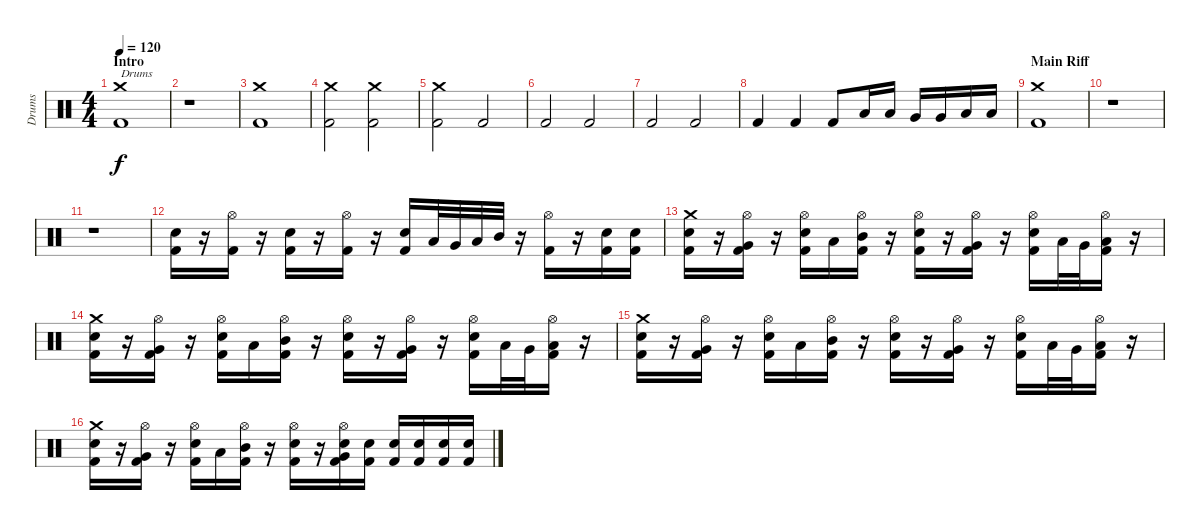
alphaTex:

\track ("Drums" "Drums") {instrument percussion}
\staff {score}
\articulation defaults
\ts (4 4)
\section ("" "Intro")
\tempo 120
\clef neutral
\ks c
("Crash medium (hit)" "Kick (hit) 2").1{txt "Drums" dy f} |
r.1 |
("Crash medium (hit)" "Kick (hit) 2").1 |
("Crash medium (hit)" "Kick (hit) 2").2 ("Crash medium (hit)" "Kick (hit) 2").2 |
("Crash medium (hit)" "Kick (hit) 2").2 "Kick (hit) 2".2 |
"Kick (hit) 2".2 "Kick (hit) 2".2 |
"Kick (hit) 2".2 "Kick (hit) 2".2 |
"Kick (hit) 2".4 "Kick (hit) 2".4 "Kick (hit) 2".8 "Low Tom (hit)".16 "Low Tom (hit)".16 "Very Low Tom (hit)".16 "Very Low Tom (hit)".16 "Low Floor Tom (hit)".16 "Low Floor Tom (hit)".16 |
\section ("" "Main Riff")
("Crash medium (hit)" "Kick (hit) 2").1 |
r.1 |
r.1 |
("Electric Snare (hit)" "Kick (hit) 2").16 r.16 ("Hi-Hat (open)" "Kick (hit) 2").16 r.16 ("Electric Snare (hit)" "Kick (hit) 2").16 r.16 ("Hi-Hat (open)" "Kick (hit) 2").16 r.16 ("Electric Snare (hit)" "Kick (hit) 2").16 "Low Floor Tom (hit)".32 "Very Low Tom (hit)".32 "Low Tom (hit)".32 "Mid Tom (hit)".32 r.16 ("Hi-Hat (open)" "Kick (hit) 2").16 r.16 ("Electric Snare (hit)" "Kick (hit) 2").16 ("Electric Snare (hit)" "Kick (hit) 2").16 |
("Crash medium (hit)" "Electric Snare (hit)" "Kick (hit) 2").16 r.16 ("Hi-Hat (open)" "Very Low Tom (hit)" "Kick (hit) 2").16 r.16 ("Hi-Hat (open)" "Electric Snare (hit)" "Kick (hit) 2").16 "Low Tom (hit)".16 ("Hi-Hat (open)" "Mid Tom (hit)" "Kick (hit) 2").16 r.16 ("Hi-Hat (open)" "Electric Snare (hit)" "Kick (hit) 2").16 r.16 ("Hi-Hat (open)" "Very Low Tom (hit)" "Kick (hit) 2").16 r.16 ("Hi-Hat (open)" "Electric Snare (hit)" "Kick (hit) 2").16 "Low Tom (hit)".32 "Very Low Tom (hit)".32 ("Hi-Hat (open)" "Low Floor Tom (hit)" "Kick (hit) 2").16 r.16 |
("Crash medium (hit)" "Electric Snare (hit)" "Kick (hit) 2").16 r.16 ("Hi-Hat (open)" "Very Low Tom (hit)" "Kick (hit) 2").16 r.16 ("Hi-Hat (open)" "Electric Snare (hit)" "Kick (hit) 2").16 "Low Tom (hit)".16 ("Hi-Hat (open)" "Mid Tom (hit)" "Kick (hit) 2").16 r.16 ("Hi-Hat (open)" "Electric Snare (hit)" "Kick (hit) 2").16 r.16 ("Hi-Hat (open)" "Very Low Tom (hit)" "Kick (hit) 2").16 r.16 ("Hi-Hat (open)" "Electric Snare (hit)" "Kick (hit) 2").16 "Low Tom (hit)".32 "Very Low Tom (hit)".32 ("Hi-Hat (open)" "Low Floor Tom (hit)" "Kick (hit) 2").16 r.16 |
("Crash medium (hit)" "Electric Snare (hit)" "Kick (hit) 2").16 r.16 ("Hi-Hat (open)" "Very Low Tom (hit)" "Kick (hit) 2").16 r.16 ("Hi-Hat (open)" "Electric Snare (hit)" "Kick (hit) 2").16 "Low Tom (hit)".16 ("Hi-Hat (open)" "Mid Tom (hit)" "Kick (hit) 2").16 r.16 ("Hi-Hat (open)" "Electric Snare (hit)" "Kick (hit) 2").16 r.16 ("Hi-Hat (open)" "Very Low Tom (hit)" "Kick (hit) 2").16 r.16 ("Hi-Hat (open)" "Electric Snare (hit)" "Kick (hit) 2").16 "Low Tom (hit)".32 "Very Low Tom (hit)".32 ("Hi-Hat (open)" "Low Floor Tom (hit)" "Kick (hit) 2").16 r.16 |
("Crash medium (hit)" "Electric Snare (hit)" "Kick (hit) 2").16 r.16 ("Hi-Hat (open)" "Very Low Tom (hit)" "Kick (hit) 2").16 r.16 ("Hi-Hat (open)" "Electric Snare (hit)" "Kick (hit) 2").16 "Low Tom (hit)".16 ("Hi-Hat (open)" "Mid Tom (hit)" "Kick (hit) 2").16 r.16 ("Hi-Hat (open)" "Electric Snare (hit)" "Kick (hit) 2").16 r.16 ("Hi-Hat (open)" "Very Low Tom (hit)" "Electric Snare (hit)" "Kick (hit) 2").16 ("Electric Snare (hit)" "Kick (hit) 2").16 ("Electric Snare (hit)" "Kick (hit) 2").16 ("Electric Snare (hit)" "Kick (hit) 2").16 ("Electric Snare (hit)" "Kick (hit) 2").16 ("Electric Snare (hit)" "Kick (hit) 2").16
